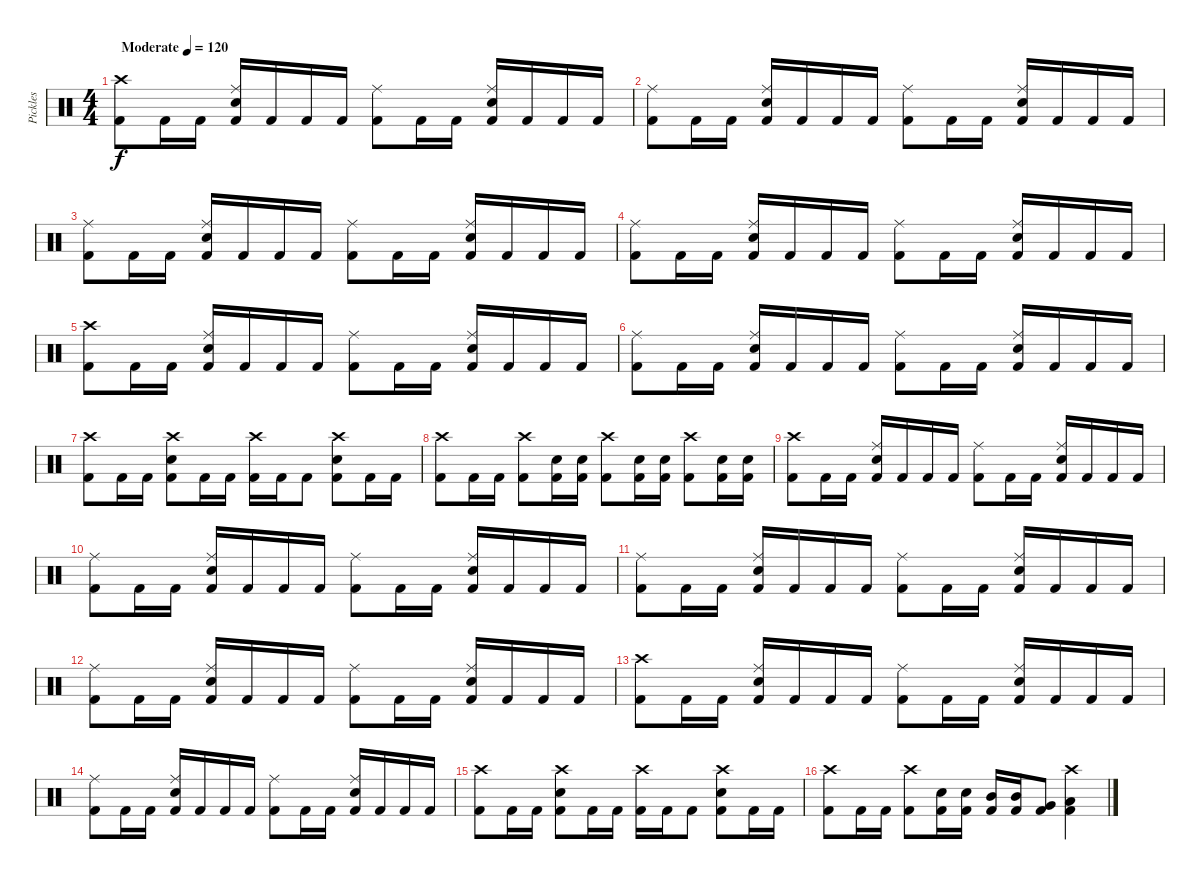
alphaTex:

\track ("Pickles" "Pickles") {instrument percussion}
\staff {score}
\articulation defaults
\ts (4 4)
\tempo (120 "Moderate")
\clef neutral
\ks c
("Crash high (hit)" "Kick (hit) 2").8{dy f} "Kick (hit) 2".16 "Kick (hit) 2".16 ("Ride (middle)" "Snare (hit) 2" "Kick (hit) 2").16 "Kick (hit) 2".16 "Kick (hit) 2".16 "Kick (hit) 2".16 ("Ride (middle)" "Kick (hit) 2").8 "Kick (hit) 2".16 "Kick (hit) 2".16 ("Ride (middle)" "Snare (hit) 2" "Kick (hit) 2").16 "Kick (hit) 2".16 "Kick (hit) 2".16 "Kick (hit) 2".16 |
("Ride (middle)" "Kick (hit) 2").8 "Kick (hit) 2".16 "Kick (hit) 2".16 ("Ride (middle)" "Snare (hit) 2" "Kick (hit) 2").16 "Kick (hit) 2".16 "Kick (hit) 2".16 "Kick (hit) 2".16 ("Ride (middle)" "Kick (hit) 2").8 "Kick (hit) 2".16 "Kick (hit) 2".16 ("Ride (middle)" "Snare (hit) 2" "Kick (hit) 2").16 "Kick (hit) 2".16 "Kick (hit) 2".16 "Kick (hit) 2".16 |
("Ride (middle)" "Kick (hit) 2").8 "Kick (hit) 2".16 "Kick (hit) 2".16 ("Ride (middle)" "Snare (hit) 2" "Kick (hit) 2").16 "Kick (hit) 2".16 "Kick (hit) 2".16 "Kick (hit) 2".16 ("Ride (middle)" "Kick (hit) 2").8 "Kick (hit) 2".16 "Kick (hit) 2".16 ("Ride (middle)" "Snare (hit) 2" "Kick (hit) 2").16 "Kick (hit) 2".16 "Kick (hit) 2".16 "Kick (hit) 2".16 |
("Ride (middle)" "Kick (hit) 2").8 "Kick (hit) 2".16 "Kick (hit) 2".16 ("Ride (middle)" "Snare (hit) 2" "Kick (hit) 2").16 "Kick (hit) 2".16 "Kick (hit) 2".16 "Kick (hit) 2".16 ("Ride (middle)" "Kick (hit) 2").8 "Kick (hit) 2".16 "Kick (hit) 2".16 ("Ride (middle)" "Snare (hit) 2" "Kick (hit) 2").16 "Kick (hit) 2".16 "Kick (hit) 2".16 "Kick (hit) 2".16 |
("Crash high (hit)" "Kick (hit) 2").8 "Kick (hit) 2".16 "Kick (hit) 2".16 ("Ride (middle)" "Snare (hit) 2" "Kick (hit) 2").16 "Kick (hit) 2".16 "Kick (hit) 2".16 "Kick (hit) 2".16 ("Ride (middle)" "Kick (hit) 2").8 "Kick (hit) 2".16 "Kick (hit) 2".16 ("Ride (middle)" "Snare (hit) 2" "Kick (hit) 2").16 "Kick (hit) 2".16 "Kick (hit) 2".16 "Kick (hit) 2".16 |
("Ride (middle)" "Kick (hit) 2").8 "Kick (hit) 2".16 "Kick (hit) 2".16 ("Ride (middle)" "Snare (hit) 2" "Kick (hit) 2").16 "Kick (hit) 2".16 "Kick (hit) 2".16 "Kick (hit) 2".16 ("Ride (middle)" "Kick (hit) 2").8 "Kick (hit) 2".16 "Kick (hit) 2".16 ("Ride (middle)" "Snare (hit) 2" "Kick (hit) 2").16 "Kick (hit) 2".16 "Kick (hit) 2".16 "Kick (hit) 2".16 |
("Crash high (hit)" "Kick (hit) 2").8 "Kick (hit) 2".16 "Kick (hit) 2".16 ("Crash high (hit)" "Snare (hit) 2" "Kick (hit) 2").8 "Kick (hit) 2".16 "Kick (hit) 2".16 ("Crash high (hit)" "Kick (hit) 2").16 "Kick (hit) 2".16 "Kick (hit) 2".8 ("Crash high (hit)" "Snare (hit) 2" "Kick (hit) 2").8 "Kick (hit) 2".16 "Kick (hit) 2".16 |
("Crash high (hit)" "Kick (hit) 2").8 "Kick (hit) 2".16 "Kick (hit) 2".16 ("Crash high (hit)" "Kick (hit) 2").8 ("Snare (hit) 2" "Kick (hit) 2").16 ("Snare (hit) 2" "Kick (hit) 2").16 ("Crash high (hit)" "Kick (hit) 2").8 ("Snare (hit) 2" "Kick (hit) 2").16 ("Snare (hit) 2" "Kick (hit) 2").16 ("Crash high (hit)" "Kick (hit) 2").8 ("Snare (hit) 2" "Kick (hit) 2").16 ("Snare (hit) 2" "Kick (hit) 2").16 |
("Crash high (hit)" "Kick (hit) 2").8 "Kick (hit) 2".16 "Kick (hit) 2".16 ("Ride (middle)" "Snare (hit) 2" "Kick (hit) 2").16 "Kick (hit) 2".16 "Kick (hit) 2".16 "Kick (hit) 2".16 ("Ride (middle)" "Kick (hit) 2").8 "Kick (hit) 2".16 "Kick (hit) 2".16 ("Ride (middle)" "Snare (hit) 2" "Kick (hit) 2").16 "Kick (hit) 2".16 "Kick (hit) 2".16 "Kick (hit) 2".16 |
("Ride (middle)" "Kick (hit) 2").8 "Kick (hit) 2".16 "Kick (hit) 2".16 ("Ride (middle)" "Snare (hit) 2" "Kick (hit) 2").16 "Kick (hit) 2".16 "Kick (hit) 2".16 "Kick (hit) 2".16 ("Ride (middle)" "Kick (hit) 2").8 "Kick (hit) 2".16 "Kick (hit) 2".16 ("Ride (middle)" "Snare (hit) 2" "Kick (hit) 2").16 "Kick (hit) 2".16 "Kick (hit) 2".16 "Kick (hit) 2".16 |
("Ride (middle)" "Kick (hit) 2").8 "Kick (hit) 2".16 "Kick (hit) 2".16 ("Ride (middle)" "Snare (hit) 2" "Kick (hit) 2").16 "Kick (hit) 2".16 "Kick (hit) 2".16 "Kick (hit) 2".16 ("Ride (middle)" "Kick (hit) 2").8 "Kick (hit) 2".16 "Kick (hit) 2".16 ("Ride (middle)" "Snare (hit) 2" "Kick (hit) 2").16 "Kick (hit) 2".16 "Kick (hit) 2".16 "Kick (hit) 2".16 |
("Ride (middle)" "Kick (hit) 2").8 "Kick (hit) 2".16 "Kick (hit) 2".16 ("Ride (middle)" "Snare (hit) 2" "Kick (hit) 2").16 "Kick (hit) 2".16 "Kick (hit) 2".16 "Kick (hit) 2".16 ("Ride (middle)" "Kick (hit) 2").8 "Kick (hit) 2".16 "Kick (hit) 2".16 ("Ride (middle)" "Snare (hit) 2" "Kick (hit) 2").16 "Kick (hit) 2".16 "Kick (hit) 2".16 "Kick (hit) 2".16 |
("Crash high (hit)" "Kick (hit) 2").8 "Kick (hit) 2".16 "Kick (hit) 2".16 ("Ride (middle)" "Snare (hit) 2" "Kick (hit) 2").16 "Kick (hit) 2".16 "Kick (hit) 2".16 "Kick (hit) 2".16 ("Ride (middle)" "Kick (hit) 2").8 "Kick (hit) 2".16 "Kick (hit) 2".16 ("Ride (middle)" "Snare (hit) 2" "Kick (hit) 2").16 "Kick (hit) 2".16 "Kick (hit) 2".16 "Kick (hit) 2".16 |
("Ride (middle)" "Kick (hit) 2").8 "Kick (hit) 2".16 "Kick (hit) 2".16 ("Ride (middle)" "Snare (hit) 2" "Kick (hit) 2").16 "Kick (hit) 2".16 "Kick (hit) 2".16 "Kick (hit) 2".16 ("Ride (middle)" "Kick (hit) 2").8 "Kick (hit) 2".16 "Kick (hit) 2".16 ("Ride (middle)" "Snare (hit) 2" "Kick (hit) 2").16 "Kick (hit) 2".16 "Kick (hit) 2".16 "Kick (hit) 2".16 |
("Crash high (hit)" "Kick (hit) 2").8 "Kick (hit) 2".16 "Kick (hit) 2".16 ("Crash high (hit)" "Snare (hit) 2" "Kick (hit) 2").8 "Kick (hit) 2".16 "Kick (hit) 2".16 ("Crash high (hit)" "Kick (hit) 2").16 "Kick (hit) 2".16 "Kick (hit) 2".8 ("Crash high (hit)" "Snare (hit) 2" "Kick (hit) 2").8 "Kick (hit) 2".16 "Kick (hit) 2".16 |
("Crash high (hit)" "Kick (hit) 2").8 "Kick (hit) 2".16 "Kick (hit) 2".16 ("Crash high (hit)" "Kick (hit) 2").8 ("Snare (hit) 2" "Kick (hit) 2").16 ("Snare (hit) 2" "Kick (hit) 2").16 ("Mid Tom (hit)" "Kick (hit) 2").16 ("Mid Tom (hit)" "Kick (hit) 2").16 ("Very Low Tom (hit)" "Kick (hit) 2").8 ("Crash high (hit)" "Low Floor Tom (hit)" "Kick (hit) 2").4
